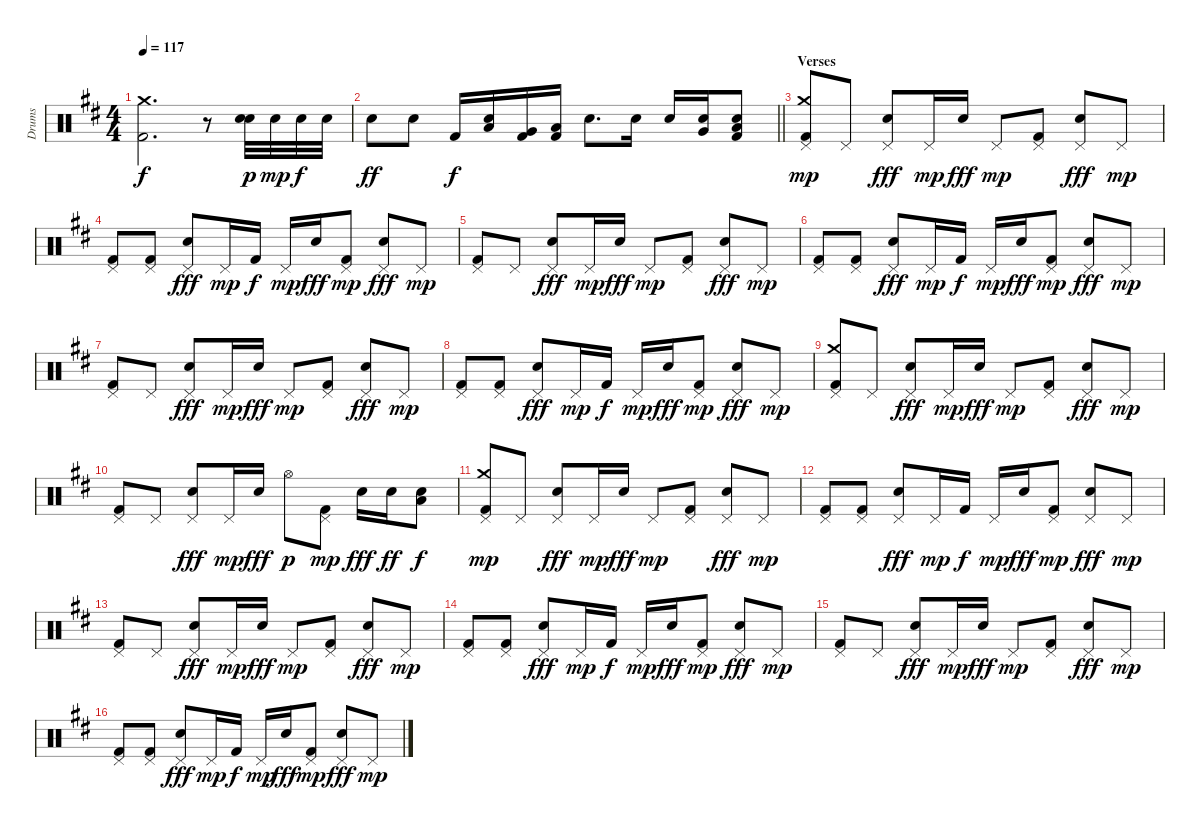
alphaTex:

\track ("Drums" "Drums") {instrument percussion}
\staff {score}
\articulation defaults
\ts (4 4)
\tempo 117
\clef neutral
\ks d
("Kick (hit) 2" "Crash medium (hit)").2{d dy f} r.8 ("Electric Snare (hit)" "Electric Snare (hit)").32{dy p} "Electric Snare (hit)".32{dy mp} "Electric Snare (hit)".32{dy f} "Electric Snare (hit)".32 |
\barLineRight lightlight "Electric Snare (hit)".8{dy ff} "Electric Snare (hit)".8 "Kick (hit) 2".16{dy f}
("Electric Snare (hit)" "Low Tom (hit)").16 ("Kick (hit) 2" "Very Low Tom (hit)").16 ("Kick (hit) 2" "Low Floor Tom (hit)").16 "Electric Snare (hit)".8{d} "Electric Snare (hit)".16 "Electric Snare (hit)".16 ("Electric Snare (hit)" "Very Low Tom (hit)").16 ("Kick (hit) 2" "Electric Snare (hit)" "Low Floor Tom (hit)").8 |
\section ("" "Verses")
("Pedal Hi-Hat (hit)" "Crash medium (hit)" "Kick (hit) 2").8{dy mp} "Pedal Hi-Hat (hit)".8 ("Pedal Hi-Hat (hit)" "Electric Snare (hit)").8{dy fff} "Pedal Hi-Hat (hit)".16{dy mp} "Electric Snare (hit)".16{dy fff} "Pedal Hi-Hat (hit)".8{dy mp} ("Pedal Hi-Hat (hit)" "Kick (hit) 2").8 ("Pedal Hi-Hat (hit)" "Electric Snare (hit)").8{dy fff} "Pedal Hi-Hat (hit)".8{dy mp} |
("Pedal Hi-Hat (hit)" "Kick (hit) 2").8 ("Pedal Hi-Hat (hit)" "Kick (hit) 2").8 ("Pedal Hi-Hat (hit)" "Electric Snare (hit)").8{dy fff} "Pedal Hi-Hat (hit)".16{dy mp} "Kick (hit) 2".16{dy f} "Pedal Hi-Hat (hit)".16{dy mp} "Electric Snare (hit)".16{dy fff} ("Pedal Hi-Hat (hit)" "Kick (hit) 2").8{dy mp} ("Pedal Hi-Hat (hit)" "Electric Snare (hit)").8{dy fff} "Pedal Hi-Hat (hit)".8{dy mp} |
("Pedal Hi-Hat (hit)" "Kick (hit) 2").8 "Pedal Hi-Hat (hit)".8 ("Pedal Hi-Hat (hit)" "Electric Snare (hit)").8{dy fff} "Pedal Hi-Hat (hit)".16{dy mp} "Electric Snare (hit)".16{dy fff} "Pedal Hi-Hat (hit)".8{dy mp} ("Pedal Hi-Hat (hit)" "Kick (hit) 2").8 ("Pedal Hi-Hat (hit)" "Electric Snare (hit)").8{dy fff} "Pedal Hi-Hat (hit)".8{dy mp} |
("Pedal Hi-Hat (hit)" "Kick (hit) 2").8 ("Pedal Hi-Hat (hit)" "Kick (hit) 2").8 ("Pedal Hi-Hat (hit)" "Electric Snare (hit)").8{dy fff} "Pedal Hi-Hat (hit)".16{dy mp} "Kick (hit) 2".16{dy f} "Pedal Hi-Hat (hit)".16{dy mp} "Electric Snare (hit)".16{dy fff} ("Pedal Hi-Hat (hit)" "Kick (hit) 2").8{dy mp} ("Pedal Hi-Hat (hit)" "Electric Snare (hit)").8{dy fff} "Pedal Hi-Hat (hit)".8{dy mp} |
("Pedal Hi-Hat (hit)" "Kick (hit) 2").8 "Pedal Hi-Hat (hit)".8 ("Pedal Hi-Hat (hit)" "Electric Snare (hit)").8{dy fff} "Pedal Hi-Hat (hit)".16{dy mp} "Electric Snare (hit)".16{dy fff} "Pedal Hi-Hat (hit)".8{dy mp} ("Pedal Hi-Hat (hit)" "Kick (hit) 2").8 ("Pedal Hi-Hat (hit)" "Electric Snare (hit)").8{dy fff} "Pedal Hi-Hat (hit)".8{dy mp} |
("Pedal Hi-Hat (hit)" "Kick (hit) 2").8 ("Pedal Hi-Hat (hit)" "Kick (hit) 2").8 ("Pedal Hi-Hat (hit)" "Electric Snare (hit)").8{dy fff} "Pedal Hi-Hat (hit)".16{dy mp} "Kick (hit) 2".16{dy f} "Pedal Hi-Hat (hit)".16{dy mp} "Electric Snare (hit)".16{dy fff} ("Pedal Hi-Hat (hit)" "Kick (hit) 2").8{dy mp} ("Pedal Hi-Hat (hit)" "Electric Snare (hit)").8{dy fff} "Pedal Hi-Hat (hit)".8{dy mp} |
("Pedal Hi-Hat (hit)" "Crash medium (hit)" "Kick (hit) 2").8 "Pedal Hi-Hat (hit)".8 ("Pedal Hi-Hat (hit)" "Electric Snare (hit)").8{dy fff} "Pedal Hi-Hat (hit)".16{dy mp} "Electric Snare (hit)".16{dy fff} "Pedal Hi-Hat (hit)".8{dy mp} ("Pedal Hi-Hat (hit)" "Kick (hit) 2").8 ("Pedal Hi-Hat (hit)" "Electric Snare (hit)").8{dy fff} "Pedal Hi-Hat (hit)".8{dy mp} |
("Pedal Hi-Hat (hit)" "Kick (hit) 2").8 "Pedal Hi-Hat (hit)".8 ("Pedal Hi-Hat (hit)" "Electric Snare (hit)").8{dy fff} "Pedal Hi-Hat (hit)".16{dy mp} "Electric Snare (hit)".16{dy fff} "Hi-Hat (open)".8{dy p} ("Pedal Hi-Hat (hit)" "Kick (hit) 2").8{dy mp} "Electric Snare (hit)".16{dy fff} "Electric Snare (hit)".16{dy ff} ("Electric Snare (hit)" "Low Floor Tom (hit)").8{dy f} |
("Pedal Hi-Hat (hit)" "Crash medium (hit)" "Kick (hit) 2").8{dy mp} "Pedal Hi-Hat (hit)".8 ("Pedal Hi-Hat (hit)" "Electric Snare (hit)").8{dy fff} "Pedal Hi-Hat (hit)".16{dy mp} "Electric Snare (hit)".16{dy fff} "Pedal Hi-Hat (hit)".8{dy mp} ("Pedal Hi-Hat (hit)" "Kick (hit) 2").8 ("Pedal Hi-Hat (hit)" "Electric Snare (hit)").8{dy fff} "Pedal Hi-Hat (hit)".8{dy mp} |
("Pedal Hi-Hat (hit)" "Kick (hit) 2").8 ("Pedal Hi-Hat (hit)" "Kick (hit) 2").8 ("Pedal Hi-Hat (hit)" "Electric Snare (hit)").8{dy fff} "Pedal Hi-Hat (hit)".16{dy mp} "Kick (hit) 2".16{dy f} "Pedal Hi-Hat (hit)".16{dy mp} "Electric Snare (hit)".16{dy fff} ("Pedal Hi-Hat (hit)" "Kick (hit) 2").8{dy mp} ("Pedal Hi-Hat (hit)" "Electric Snare (hit)").8{dy fff} "Pedal Hi-Hat (hit)".8{dy mp} |
("Pedal Hi-Hat (hit)" "Kick (hit) 2").8 "Pedal Hi-Hat (hit)".8 ("Pedal Hi-Hat (hit)" "Electric Snare (hit)").8{dy fff} "Pedal Hi-Hat (hit)".16{dy mp} "Electric Snare (hit)".16{dy fff} "Pedal Hi-Hat (hit)".8{dy mp} ("Pedal Hi-Hat (hit)" "Kick (hit) 2").8 ("Pedal Hi-Hat (hit)" "Electric Snare (hit)").8{dy fff} "Pedal Hi-Hat (hit)".8{dy mp} |
("Pedal Hi-Hat (hit)" "Kick (hit) 2").8 ("Pedal Hi-Hat (hit)" "Kick (hit) 2").8 ("Pedal Hi-Hat (hit)" "Electric Snare (hit)").8{dy fff} "Pedal Hi-Hat (hit)".16{dy mp} "Kick (hit) 2".16{dy f} "Pedal Hi-Hat (hit)".16{dy mp} "Electric Snare (hit)".16{dy fff} ("Pedal Hi-Hat (hit)" "Kick (hit) 2").8{dy mp} ("Pedal Hi-Hat (hit)" "Electric Snare (hit)").8{dy fff} "Pedal Hi-Hat (hit)".8{dy mp} |
("Pedal Hi-Hat (hit)" "Kick (hit) 2").8 "Pedal Hi-Hat (hit)".8 ("Pedal Hi-Hat (hit)" "Electric Snare (hit)").8{dy fff} "Pedal Hi-Hat (hit)".16{dy mp} "Electric Snare (hit)".16{dy fff} "Pedal Hi-Hat (hit)".8{dy mp} ("Pedal Hi-Hat (hit)" "Kick (hit) 2").8 ("Pedal Hi-Hat (hit)" "Electric Snare (hit)").8{dy fff} "Pedal Hi-Hat (hit)".8{dy mp} |
("Pedal Hi-Hat (hit)" "Kick (hit) 2").8 ("Pedal Hi-Hat (hit)" "Kick (hit) 2").8 ("Pedal Hi-Hat (hit)" "Electric Snare (hit)").8{dy fff} "Pedal Hi-Hat (hit)".16{dy mp} "Kick (hit) 2".16{dy f} "Pedal Hi-Hat (hit)".16{dy mp} "Electric Snare (hit)".16{dy fff} ("Pedal Hi-Hat (hit)" "Kick (hit) 2").8{dy mp} ("Pedal Hi-Hat (hit)" "Electric Snare (hit)").8{dy fff} "Pedal Hi-Hat (hit)".8{dy mp}
